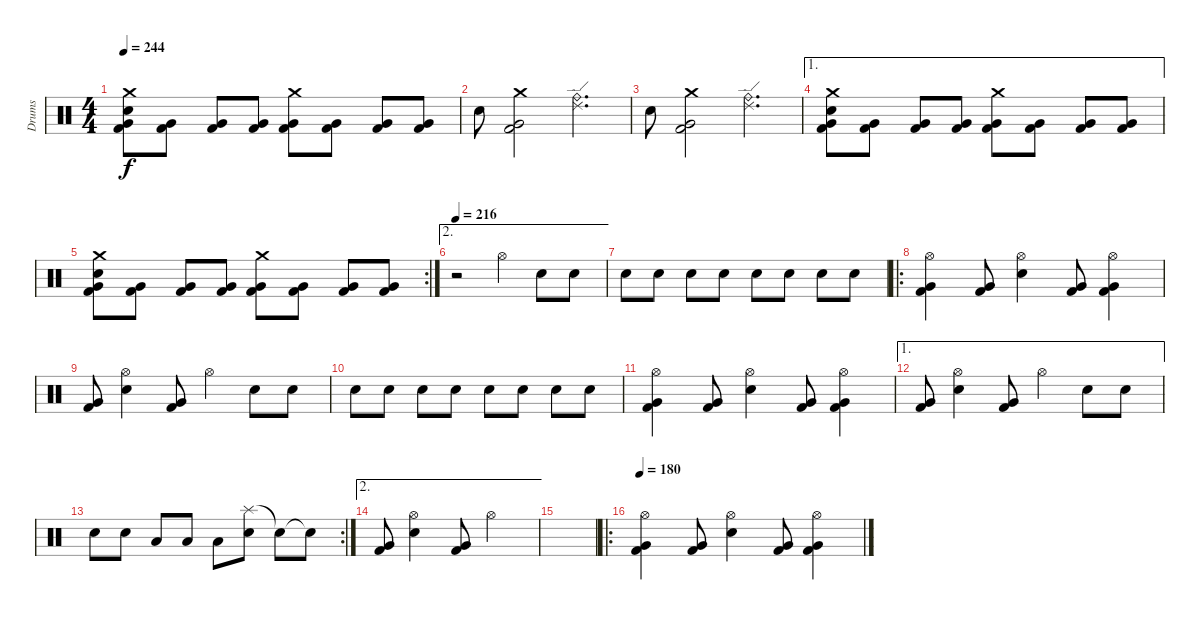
\track ("Drums" "Drums") {instrument percussion}
\staff {score}
\articulation defaults
\ts (4 4)
\tempo 244
\clef neutral
\ks c
("Crash medium (hit)" "Snare (hit) 2" "Very Low Tom (hit)" "Kick (hit) 2").8{dy f} ("Very Low Tom (hit)" "Kick (hit) 2").8 ("Very Low Tom (hit)" "Kick (hit) 2").8 ("Very Low Tom (hit)" "Kick (hit) 2").8 ("Crash medium (hit)" "Very Low Tom (hit)" "Kick (hit) 2").8 ("Very Low Tom (hit)" "Kick (hit) 2").8 ("Very Low Tom (hit)" "Kick (hit) 2").8 ("Very Low Tom (hit)" "Kick (hit) 2").8 |
"Snare (hit) 2".8 ("Crash medium (hit)" "Very Low Tom (hit)" "Kick (hit) 2").2 ("Ride (bell)" "Ride (edge) 2").4{d} |
"Snare (hit) 2".8 ("Crash medium (hit)" "Very Low Tom (hit)" "Kick (hit) 2").2 ("Ride (bell)" "Ride (edge) 2").4{d} |
\ae 1
("Crash medium (hit)" "Snare (hit) 2" "Very Low Tom (hit)" "Kick (hit) 2").8 ("Very Low Tom (hit)" "Kick (hit) 2").8 ("Very Low Tom (hit)" "Kick (hit) 2").8 ("Very Low Tom (hit)" "Kick (hit) 2").8 ("Crash medium (hit)" "Very Low Tom (hit)" "Kick (hit) 2").8 ("Very Low Tom (hit)" "Kick (hit) 2").8 ("Very Low Tom (hit)" "Kick (hit) 2").8 ("Very Low Tom (hit)" "Kick (hit) 2").8 |
\rc 2
("Crash medium (hit)" "Snare (hit) 2" "Very Low Tom (hit)" "Kick (hit) 2").8 ("Very Low Tom (hit)" "Kick (hit) 2").8 ("Very Low Tom (hit)" "Kick (hit) 2").8 ("Very Low Tom (hit)" "Kick (hit) 2").8 ("Crash medium (hit)" "Very Low Tom (hit)" "Kick (hit) 2").8 ("Very Low Tom (hit)" "Kick (hit) 2").8 ("Very Low Tom (hit)" "Kick (hit) 2").8 ("Very Low Tom (hit)" "Kick (hit) 2").8 |
\ae 2
\tempo 216
r.2 "Hi-Hat (open)".4 "Snare (hit) 2".8 "Snare (hit) 2".8 |
"Snare (hit) 2".8 "Snare (hit) 2".8 "Snare (hit) 2".8 "Snare (hit) 2".8 "Snare (hit) 2".8 "Snare (hit) 2".8 "Snare (hit) 2".8 "Snare (hit) 2".8 |
\ro
("Hi-Hat (open)" "Very Low Tom (hit)" "Kick (hit) 2").4 ("Very Low Tom (hit)" "Kick (hit) 2").8 ("Hi-Hat (open)" "Snare (hit) 2").4 ("Very Low Tom (hit)" "Kick (hit) 2").8 ("Hi-Hat (open)" "Very Low Tom (hit)" "Kick (hit) 2").4 |
("Very Low Tom (hit)" "Kick (hit) 2").8 ("Hi-Hat (open)" "Snare (hit) 2").4 ("Very Low Tom (hit)" "Kick (hit) 2").8 "Hi-Hat (open)".4 "Snare (hit) 2".8 "Snare (hit) 2".8 |
"Snare (hit) 2".8 "Snare (hit) 2".8 "Snare (hit) 2".8 "Snare (hit) 2".8 "Snare (hit) 2".8 "Snare (hit) 2".8 "Snare (hit) 2".8 "Snare (hit) 2".8 |
("Hi-Hat (open)" "Very Low Tom (hit)" "Kick (hit) 2").4 ("Very Low Tom (hit)" "Kick (hit) 2").8 ("Hi-Hat (open)" "Snare (hit) 2").4 ("Very Low Tom (hit)" "Kick (hit) 2").8 ("Hi-Hat (open)" "Very Low Tom (hit)" "Kick (hit) 2").4 |
\ae 1
("Very Low Tom (hit)" "Kick (hit) 2").8 ("Hi-Hat (open)" "Snare (hit) 2").4 ("Very Low Tom (hit)" "Kick (hit) 2").8 "Hi-Hat (open)".4 "Snare (hit) 2".8 "Snare (hit) 2".8 |
\rc 2 "Snare (hit) 2".8 "Snare (hit) 2".8 "Low Tom (hit)".8 "Low Tom (hit)".8 "Low Tom (hit)".8
("Splash (hit)" "Snare (hit) 2").8 "Snare (hit)"{t}.8 "Snare (hit)"{t}.8 |
\ae 2
("Very Low Tom (hit)" "Kick (hit) 2").8 ("Hi-Hat (open)" "Snare (hit) 2").4 ("Very Low Tom (hit)" "Kick (hit) 2").8 "Hi-Hat (open)".2 |
|
\ro
\tempo 185
\tempo 211
\tempo 180
("Hi-Hat (open)" "Very Low Tom (hit)" "Kick (hit) 2").4 ("Very Low Tom (hit)" "Kick (hit) 2").8 ("Hi-Hat (open)" "Snare (hit) 2").4 ("Very Low Tom (hit)" "Kick (hit) 2").8 ("Hi-Hat (open)" "Very Low Tom (hit)" "Kick (hit) 2").4
